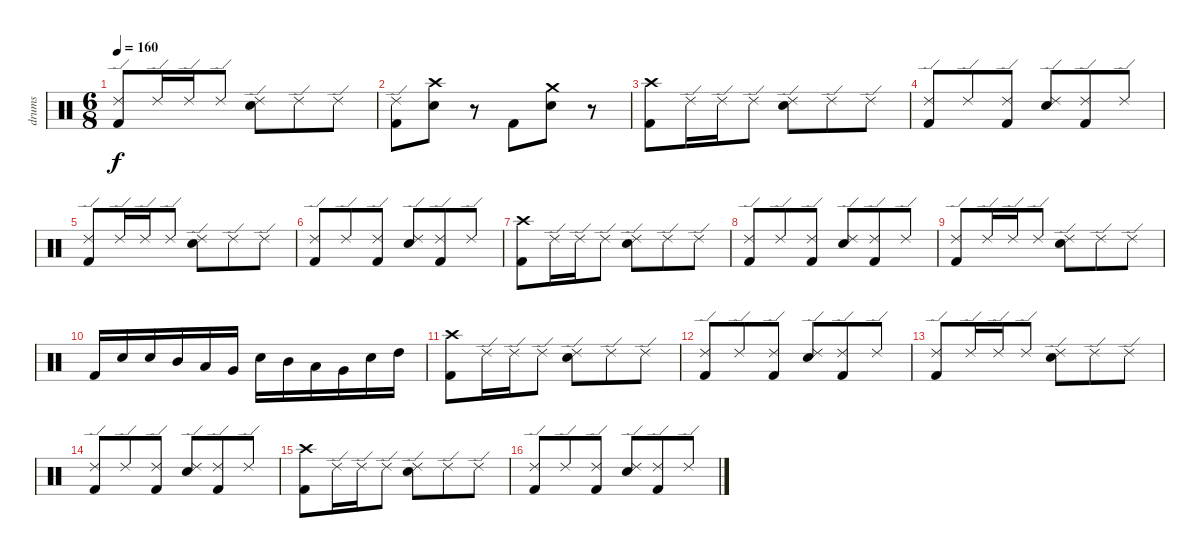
\track ("drums" "drums") {instrument percussion}
\staff {score}
\articulation defaults
\ts (6 8)
\tempo 160
\clef neutral
\ks c
("Ride (edge) 2" "Kick (hit) 2").8{dy f} "Ride (edge) 2".16 "Ride (edge) 2".16 "Ride (edge) 2".8 ("Electric Snare (hit)" "Ride (edge) 2").8 "Ride (edge) 2".8 "Ride (edge) 2".8 |
("Kick (hit) 2" "Ride (edge) 2").8 ("Crash high (hit)" "Electric Snare (hit)").8 r.8 "Kick (hit) 2".8 ("Crash medium (hit)" "Electric Snare (hit)").8 r.8 |
("Kick (hit) 2" "Crash high (hit)").8 "Ride (edge) 2".16 "Ride (edge) 2".16 "Ride (edge) 2".8 ("Electric Snare (hit)" "Ride (edge) 2").8 "Ride (edge) 2".8 "Ride (edge) 2".8 |
("Kick (hit) 2" "Ride (edge) 2").8 "Ride (edge) 2".8 ("Kick (hit) 2" "Ride (edge) 2").8 ("Electric Snare (hit)" "Ride (edge) 2").8 ("Kick (hit) 2" "Ride (edge) 2").8 "Ride (edge) 2".8 |
("Ride (edge) 2" "Kick (hit) 2").8 "Ride (edge) 2".16 "Ride (edge) 2".16 "Ride (edge) 2".8 ("Electric Snare (hit)" "Ride (edge) 2").8 "Ride (edge) 2".8 "Ride (edge) 2".8 |
("Kick (hit) 2" "Ride (edge) 2").8 "Ride (edge) 2".8 ("Kick (hit) 2" "Ride (edge) 2").8 ("Electric Snare (hit)" "Ride (edge) 2").8 ("Kick (hit) 2" "Ride (edge) 2").8 "Ride (edge) 2".8 |
("Kick (hit) 2" "Crash high (hit)").8 "Ride (edge) 2".16 "Ride (edge) 2".16 "Ride (edge) 2".8 ("Electric Snare (hit)" "Ride (edge) 2").8 "Ride (edge) 2".8 "Ride (edge) 2".8 |
("Kick (hit) 2" "Ride (edge) 2").8 "Ride (edge) 2".8 ("Kick (hit) 2" "Ride (edge) 2").8 ("Electric Snare (hit)" "Ride (edge) 2").8 ("Kick (hit) 2" "Ride (edge) 2").8 "Ride (edge) 2".8 |
("Ride (edge) 2" "Kick (hit) 2").8 "Ride (edge) 2".16 "Ride (edge) 2".16 "Ride (edge) 2".8 ("Electric Snare (hit)" "Ride (edge) 2").8 "Ride (edge) 2".8 "Ride (edge) 2".8 |
"Kick (hit) 2".16 "Electric Snare (hit)".16 "Electric Snare (hit)".16 "Mid Tom (hit)".16 "Low Tom (hit)".16 "Very Low Tom (hit)".16 "Electric Snare (hit)".16 "Mid Tom (hit)".16 "Low Tom (hit)".16 "Very Low Tom (hit)".16 "Electric Snare (hit)".16 "High Tom (hit)".16 |
("Kick (hit) 2" "Crash high (hit)").8 "Ride (edge) 2".16 "Ride (edge) 2".16 "Ride (edge) 2".8 ("Electric Snare (hit)" "Ride (edge) 2").8 "Ride (edge) 2".8 "Ride (edge) 2".8 |
("Kick (hit) 2" "Ride (edge) 2").8 "Ride (edge) 2".8 ("Kick (hit) 2" "Ride (edge) 2").8 ("Electric Snare (hit)" "Ride (edge) 2").8 ("Kick (hit) 2" "Ride (edge) 2").8 "Ride (edge) 2".8 |
("Ride (edge) 2" "Kick (hit) 2").8 "Ride (edge) 2".16 "Ride (edge) 2".16 "Ride (edge) 2".8 ("Electric Snare (hit)" "Ride (edge) 2").8 "Ride (edge) 2".8 "Ride (edge) 2".8 |
("Kick (hit) 2" "Ride (edge) 2").8 "Ride (edge) 2".8 ("Kick (hit) 2" "Ride (edge) 2").8 ("Electric Snare (hit)" "Ride (edge) 2").8 ("Kick (hit) 2" "Ride (edge) 2").8 "Ride (edge) 2".8 |
("Kick (hit) 2" "Crash high (hit)").8 "Ride (edge) 2".16 "Ride (edge) 2".16 "Ride (edge) 2".8 ("Electric Snare (hit)" "Ride (edge) 2").8 "Ride (edge) 2".8 "Ride (edge) 2".8 |
("Kick (hit) 2" "Ride (edge) 2").8 "Ride (edge) 2".8 ("Kick (hit) 2" "Ride (edge) 2").8 ("Electric Snare (hit)" "Ride (edge) 2").8 ("Kick (hit) 2" "Ride (edge) 2").8 "Ride (edge) 2".8
